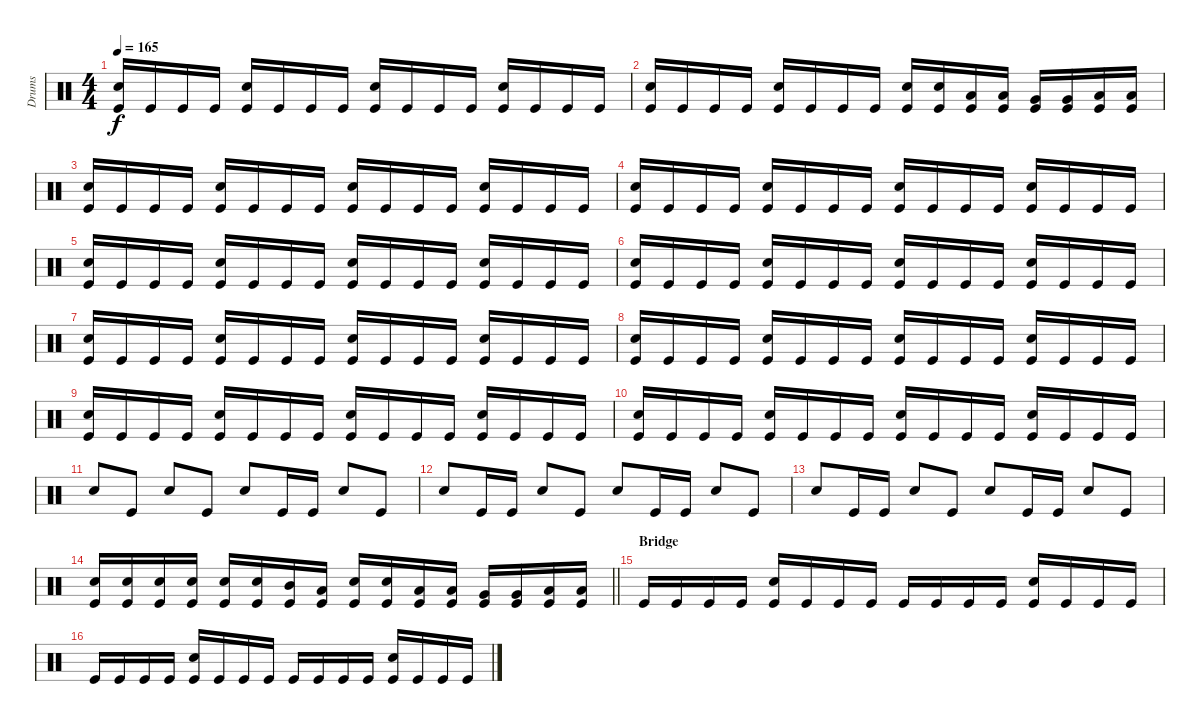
\track ("Drums" "Drums") {instrument percussion}
\staff {score}
\articulation defaults
\ts (4 4)
\tempo 165
\clef neutral
\ks c
("Kick (hit)" "Snare (hit) 2").16{dy f} "Kick (hit)".16 "Kick (hit)".16 "Kick (hit)".16 ("Kick (hit)" "Snare (hit) 2").16 "Kick (hit)".16 "Kick (hit)".16 "Kick (hit)".16 ("Kick (hit)" "Snare (hit) 2").16 "Kick (hit)".16 "Kick (hit)".16 "Kick (hit)".16 ("Kick (hit)" "Snare (hit) 2").16 "Kick (hit)".16 "Kick (hit)".16 "Kick (hit)".16 |
("Kick (hit)" "Snare (hit) 2").16 "Kick (hit)".16 "Kick (hit)".16 "Kick (hit)".16 ("Kick (hit)" "Snare (hit) 2").16 "Kick (hit)".16 "Kick (hit)".16 "Kick (hit)".16 ("Kick (hit)" "Snare (hit) 2").16 ("Kick (hit)" "Snare (hit) 2").16 ("Kick (hit)" "Low Tom (hit)").16 ("Kick (hit)" "Low Tom (hit)").16 ("Kick (hit)" "Very Low Tom (hit)").16 ("Kick (hit)" "Very Low Tom (hit)").16 ("Kick (hit)" "Low Floor Tom (hit)").16 ("Kick (hit)" "Low Floor Tom (hit)").16 |
("Kick (hit)" "Snare (hit) 2").16 "Kick (hit)".16 "Kick (hit)".16 "Kick (hit)".16 ("Kick (hit)" "Snare (hit) 2").16 "Kick (hit)".16 "Kick (hit)".16 "Kick (hit)".16 ("Kick (hit)" "Snare (hit) 2").16 "Kick (hit)".16 "Kick (hit)".16 "Kick (hit)".16 ("Kick (hit)" "Snare (hit) 2").16 "Kick (hit)".16 "Kick (hit)".16 "Kick (hit)".16 |
("Kick (hit)" "Snare (hit) 2").16 "Kick (hit)".16 "Kick (hit)".16 "Kick (hit)".16 ("Kick (hit)" "Snare (hit) 2").16 "Kick (hit)".16 "Kick (hit)".16 "Kick (hit)".16 ("Kick (hit)" "Snare (hit) 2").16 "Kick (hit)".16 "Kick (hit)".16 "Kick (hit)".16 ("Kick (hit)" "Snare (hit) 2").16 "Kick (hit)".16 "Kick (hit)".16 "Kick (hit)".16 |
("Kick (hit)" "Snare (hit) 2").16 "Kick (hit)".16 "Kick (hit)".16 "Kick (hit)".16 ("Kick (hit)" "Snare (hit) 2").16 "Kick (hit)".16 "Kick (hit)".16 "Kick (hit)".16 ("Kick (hit)" "Snare (hit) 2").16 "Kick (hit)".16 "Kick (hit)".16 "Kick (hit)".16 ("Kick (hit)" "Snare (hit) 2").16 "Kick (hit)".16 "Kick (hit)".16 "Kick (hit)".16 |
("Kick (hit)" "Snare (hit) 2").16 "Kick (hit)".16 "Kick (hit)".16 "Kick (hit)".16 ("Kick (hit)" "Snare (hit) 2").16 "Kick (hit)".16 "Kick (hit)".16 "Kick (hit)".16 ("Kick (hit)" "Snare (hit) 2").16 "Kick (hit)".16 "Kick (hit)".16 "Kick (hit)".16 ("Kick (hit)" "Snare (hit) 2").16 "Kick (hit)".16 "Kick (hit)".16 "Kick (hit)".16 |
("Kick (hit)" "Snare (hit) 2").16 "Kick (hit)".16 "Kick (hit)".16 "Kick (hit)".16 ("Kick (hit)" "Snare (hit) 2").16 "Kick (hit)".16 "Kick (hit)".16 "Kick (hit)".16 ("Kick (hit)" "Snare (hit) 2").16 "Kick (hit)".16 "Kick (hit)".16 "Kick (hit)".16 ("Kick (hit)" "Snare (hit) 2").16 "Kick (hit)".16 "Kick (hit)".16 "Kick (hit)".16 |
("Kick (hit)" "Snare (hit) 2").16 "Kick (hit)".16 "Kick (hit)".16 "Kick (hit)".16 ("Kick (hit)" "Snare (hit) 2").16 "Kick (hit)".16 "Kick (hit)".16 "Kick (hit)".16 ("Kick (hit)" "Snare (hit) 2").16 "Kick (hit)".16 "Kick (hit)".16 "Kick (hit)".16 ("Kick (hit)" "Snare (hit) 2").16 "Kick (hit)".16 "Kick (hit)".16 "Kick (hit)".16 |
("Kick (hit)" "Snare (hit) 2").16 "Kick (hit)".16 "Kick (hit)".16 "Kick (hit)".16 ("Kick (hit)" "Snare (hit) 2").16 "Kick (hit)".16 "Kick (hit)".16 "Kick (hit)".16 ("Kick (hit)" "Snare (hit) 2").16 "Kick (hit)".16 "Kick (hit)".16 "Kick (hit)".16 ("Kick (hit)" "Snare (hit) 2").16 "Kick (hit)".16 "Kick (hit)".16 "Kick (hit)".16 |
("Kick (hit)" "Snare (hit) 2").16 "Kick (hit)".16 "Kick (hit)".16 "Kick (hit)".16 ("Kick (hit)" "Snare (hit) 2").16 "Kick (hit)".16 "Kick (hit)".16 "Kick (hit)".16 ("Kick (hit)" "Snare (hit) 2").16 "Kick (hit)".16 "Kick (hit)".16 "Kick (hit)".16 ("Kick (hit)" "Snare (hit) 2").16 "Kick (hit)".16 "Kick (hit)".16 "Kick (hit)".16 |
"Snare (hit) 2".8 "Kick (hit)".8 "Snare (hit) 2".8 "Kick (hit)".8 "Snare (hit) 2".8 "Kick (hit)".16 "Kick (hit)".16 "Snare (hit) 2".8 "Kick (hit)".8 |
"Snare (hit) 2".8 "Kick (hit)".16 "Kick (hit)".16 "Snare (hit) 2".8 "Kick (hit)".8 "Snare (hit) 2".8 "Kick (hit)".16 "Kick (hit)".16 "Snare (hit) 2".8 "Kick (hit)".8 |
"Snare (hit) 2".8 "Kick (hit)".16 "Kick (hit)".16 "Snare (hit) 2".8 "Kick (hit)".8 "Snare (hit) 2".8 "Kick (hit)".16 "Kick (hit)".16 "Snare (hit) 2".8 "Kick (hit)".8 |
\barLineRight lightlight
("Kick (hit)" "Snare (hit) 2").16 ("Kick (hit)" "Snare (hit) 2").16 ("Kick (hit)" "Snare (hit) 2").16 ("Kick (hit)" "Snare (hit) 2").16 ("Kick (hit)" "Snare (hit) 2").16 ("Kick (hit)" "Snare (hit) 2").16 ("Kick (hit)" "Mid Tom (hit)").16 ("Kick (hit)" "Low Tom (hit)").16 ("Kick (hit)" "Snare (hit) 2").16 ("Kick (hit)" "Snare (hit) 2").16 ("Kick (hit)" "Low Tom (hit)").16 ("Kick (hit)" "Low Tom (hit)").16 ("Kick (hit)" "Very Low Tom (hit)").16 ("Kick (hit)" "Very Low Tom (hit)").16 ("Kick (hit)" "Low Floor Tom (hit)").16 ("Kick (hit)" "Low Floor Tom (hit)").16 |
\section ("" "Bridge")
"Kick (hit)".16 "Kick (hit)".16 "Kick (hit)".16 "Kick (hit)".16 ("Kick (hit)" "Snare (hit) 2").16 "Kick (hit)".16 "Kick (hit)".16 "Kick (hit)".16 "Kick (hit)".16 "Kick (hit)".16 "Kick (hit)".16 "Kick (hit)".16 ("Kick (hit)" "Snare (hit) 2").16 "Kick (hit)".16 "Kick (hit)".16 "Kick (hit)".16 |
"Kick (hit)".16 "Kick (hit)".16 "Kick (hit)".16 "Kick (hit)".16 ("Kick (hit)" "Snare (hit) 2").16 "Kick (hit)".16 "Kick (hit)".16 "Kick (hit)".16 "Kick (hit)".16 "Kick (hit)".16 "Kick (hit)".16 "Kick (hit)".16 ("Kick (hit)" "Snare (hit) 2").16 "Kick (hit)".16 "Kick (hit)".16 "Kick (hit)".16
